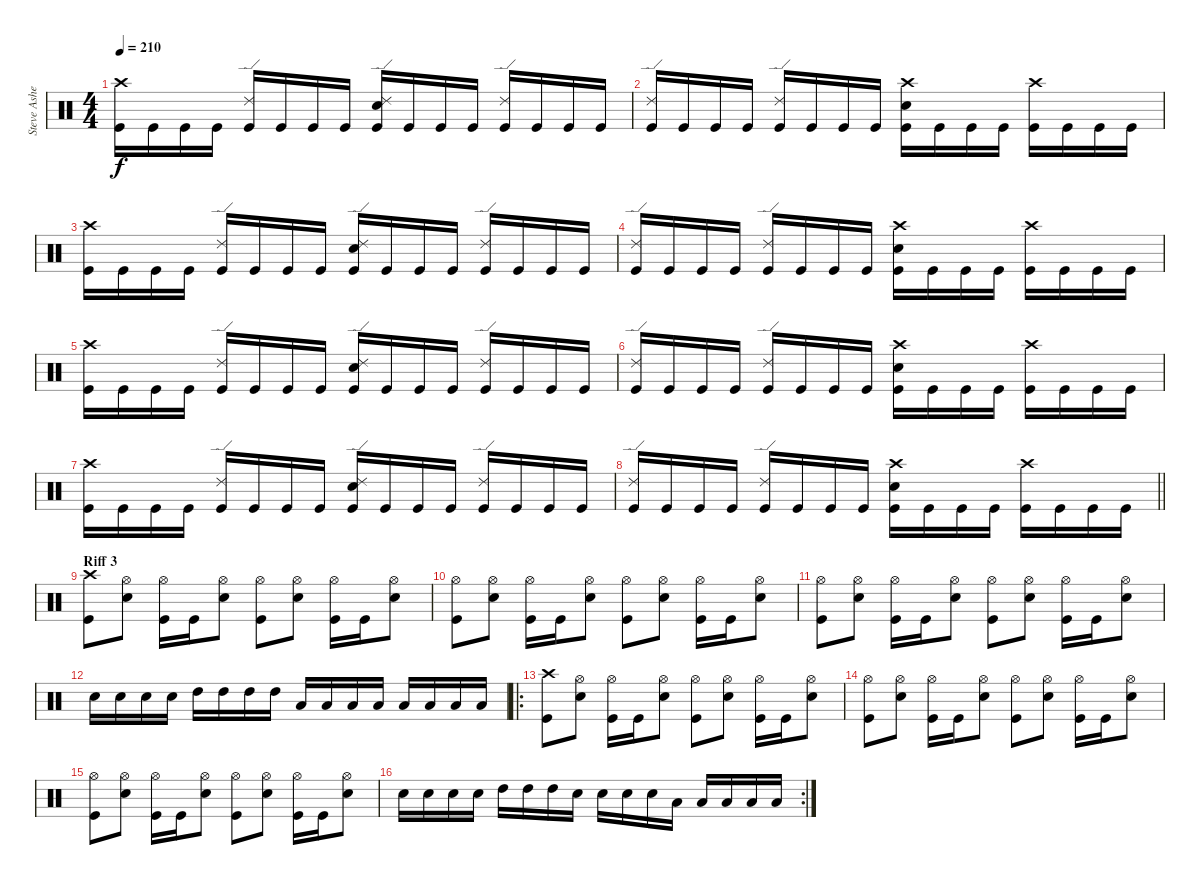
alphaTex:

\track ("Steve Asheim" "Steve Ashe") {instrument percussion}
\staff {score}
\articulation defaults
\ts (4 4)
\tempo 210
\clef neutral
\ks c
("Crash high (hit)" "Kick (hit)").16{dy f} "Kick (hit)".16 "Kick (hit)".16 "Kick (hit)".16 ("Ride (edge) 2" "Kick (hit)").16 "Kick (hit)".16 "Kick (hit)".16 "Kick (hit)".16 ("Ride (edge) 2" "Snare (hit) 2" "Kick (hit)").16 "Kick (hit)".16 "Kick (hit)".16 "Kick (hit)".16 ("Ride (edge) 2" "Kick (hit)").16 "Kick (hit)".16 "Kick (hit)".16 "Kick (hit)".16 |
("Ride (edge) 2" "Kick (hit)").16 "Kick (hit)".16 "Kick (hit)".16 "Kick (hit)".16 ("Ride (edge) 2" "Kick (hit)").16 "Kick (hit)".16 "Kick (hit)".16 "Kick (hit)".16 ("Crash high (hit)" "Snare (hit) 2" "Kick (hit)").16 "Kick (hit)".16 "Kick (hit)".16 "Kick (hit)".16 ("Crash high (hit)" "Kick (hit)").16 "Kick (hit)".16 "Kick (hit)".16 "Kick (hit)".16 |
("Crash high (hit)" "Kick (hit)").16 "Kick (hit)".16 "Kick (hit)".16 "Kick (hit)".16 ("Ride (edge) 2" "Kick (hit)").16 "Kick (hit)".16 "Kick (hit)".16 "Kick (hit)".16 ("Ride (edge) 2" "Snare (hit) 2" "Kick (hit)").16 "Kick (hit)".16 "Kick (hit)".16 "Kick (hit)".16 ("Ride (edge) 2" "Kick (hit)").16 "Kick (hit)".16 "Kick (hit)".16 "Kick (hit)".16 |
("Ride (edge) 2" "Kick (hit)").16 "Kick (hit)".16 "Kick (hit)".16 "Kick (hit)".16 ("Ride (edge) 2" "Kick (hit)").16 "Kick (hit)".16 "Kick (hit)".16 "Kick (hit)".16 ("Crash high (hit)" "Snare (hit) 2" "Kick (hit)").16 "Kick (hit)".16 "Kick (hit)".16 "Kick (hit)".16 ("Crash high (hit)" "Kick (hit)").16 "Kick (hit)".16 "Kick (hit)".16 "Kick (hit)".16 |
("Crash high (hit)" "Kick (hit)").16 "Kick (hit)".16 "Kick (hit)".16 "Kick (hit)".16 ("Ride (edge) 2" "Kick (hit)").16 "Kick (hit)".16 "Kick (hit)".16 "Kick (hit)".16 ("Ride (edge) 2" "Snare (hit) 2" "Kick (hit)").16 "Kick (hit)".16 "Kick (hit)".16 "Kick (hit)".16 ("Ride (edge) 2" "Kick (hit)").16 "Kick (hit)".16 "Kick (hit)".16 "Kick (hit)".16 |
("Ride (edge) 2" "Kick (hit)").16 "Kick (hit)".16 "Kick (hit)".16 "Kick (hit)".16 ("Ride (edge) 2" "Kick (hit)").16 "Kick (hit)".16 "Kick (hit)".16 "Kick (hit)".16 ("Crash high (hit)" "Snare (hit) 2" "Kick (hit)").16 "Kick (hit)".16 "Kick (hit)".16 "Kick (hit)".16 ("Crash high (hit)" "Kick (hit)").16 "Kick (hit)".16 "Kick (hit)".16 "Kick (hit)".16 |
("Crash high (hit)" "Kick (hit)").16 "Kick (hit)".16 "Kick (hit)".16 "Kick (hit)".16 ("Ride (edge) 2" "Kick (hit)").16 "Kick (hit)".16 "Kick (hit)".16 "Kick (hit)".16 ("Ride (edge) 2" "Snare (hit) 2" "Kick (hit)").16 "Kick (hit)".16 "Kick (hit)".16 "Kick (hit)".16 ("Ride (edge) 2" "Kick (hit)").16 "Kick (hit)".16 "Kick (hit)".16 "Kick (hit)".16 |
\barLineRight lightlight
("Ride (edge) 2" "Kick (hit)").16 "Kick (hit)".16 "Kick (hit)".16 "Kick (hit)".16 ("Ride (edge) 2" "Kick (hit)").16 "Kick (hit)".16 "Kick (hit)".16 "Kick (hit)".16 ("Crash high (hit)" "Snare (hit) 2" "Kick (hit)").16 "Kick (hit)".16 "Kick (hit)".16 "Kick (hit)".16 ("Crash high (hit)" "Kick (hit)").16 "Kick (hit)".16 "Kick (hit)".16 "Kick (hit)".16 |
\section ("" "Riff 3")
("Crash high (hit)" "Kick (hit)").8 ("Hi-Hat (open)" "Snare (hit) 2").8 ("Hi-Hat (open)" "Kick (hit)").16 "Kick (hit)".16 ("Hi-Hat (open)" "Snare (hit) 2").8 ("Hi-Hat (open)" "Kick (hit)").8 ("Hi-Hat (open)" "Snare (hit) 2").8 ("Hi-Hat (open)" "Kick (hit)").16 "Kick (hit)".16 ("Hi-Hat (open)" "Snare (hit) 2").8 |
("Hi-Hat (open)" "Kick (hit)").8 ("Hi-Hat (open)" "Snare (hit) 2").8 ("Hi-Hat (open)" "Kick (hit)").16 "Kick (hit)".16 ("Hi-Hat (open)" "Snare (hit) 2").8 ("Hi-Hat (open)" "Kick (hit)").8 ("Hi-Hat (open)" "Snare (hit) 2").8 ("Hi-Hat (open)" "Kick (hit)").16 "Kick (hit)".16 ("Hi-Hat (open)" "Snare (hit) 2").8 |
("Hi-Hat (open)" "Kick (hit)").8 ("Hi-Hat (open)" "Snare (hit) 2").8 ("Hi-Hat (open)" "Kick (hit)").16 "Kick (hit)".16 ("Hi-Hat (open)" "Snare (hit) 2").8 ("Hi-Hat (open)" "Kick (hit)").8 ("Hi-Hat (open)" "Snare (hit) 2").8 ("Hi-Hat (open)" "Kick (hit)").16 "Kick (hit)".16 ("Hi-Hat (open)" "Snare (hit) 2").8 |
"Snare (hit) 2".16 "Snare (hit) 2".16 "Snare (hit) 2".16 "Snare (hit) 2".16 "High Tom (hit)".16 "High Tom (hit)".16 "High Tom (hit)".16 "High Tom (hit)".16 "Low Tom (hit)".16 "Low Tom (hit)".16 "Low Tom (hit)".16 "Low Tom (hit)".16 "Low Floor Tom (hit)".16 "Low Floor Tom (hit)".16 "Low Floor Tom (hit)".16 "Low Floor Tom (hit)".16 |
\ro
("Crash high (hit)" "Kick (hit)").8 ("Hi-Hat (open)" "Snare (hit) 2").8 ("Hi-Hat (open)" "Kick (hit)").16 "Kick (hit)".16 ("Hi-Hat (open)" "Snare (hit) 2").8 ("Hi-Hat (open)" "Kick (hit)").8 ("Hi-Hat (open)" "Snare (hit) 2").8 ("Hi-Hat (open)" "Kick (hit)").16 "Kick (hit)".16 ("Hi-Hat (open)" "Snare (hit) 2").8 |
("Hi-Hat (open)" "Kick (hit)").8 ("Hi-Hat (open)" "Snare (hit) 2").8 ("Hi-Hat (open)" "Kick (hit)").16 "Kick (hit)".16 ("Hi-Hat (open)" "Snare (hit) 2").8 ("Hi-Hat (open)" "Kick (hit)").8 ("Hi-Hat (open)" "Snare (hit) 2").8 ("Hi-Hat (open)" "Kick (hit)").16 "Kick (hit)".16 ("Hi-Hat (open)" "Snare (hit) 2").8 |
("Hi-Hat (open)" "Kick (hit)").8 ("Hi-Hat (open)" "Snare (hit) 2").8 ("Hi-Hat (open)" "Kick (hit)").16 "Kick (hit)".16 ("Hi-Hat (open)" "Snare (hit) 2").8 ("Hi-Hat (open)" "Kick (hit)").8 ("Hi-Hat (open)" "Snare (hit) 2").8 ("Hi-Hat (open)" "Kick (hit)").16 "Kick (hit)".16 ("Hi-Hat (open)" "Snare (hit) 2").8 |
\rc 2 "Snare (hit) 2".16 "Snare (hit) 2".16 "Snare (hit) 2".16 "Snare (hit) 2".16 "High Tom (hit)".16 "High Tom (hit)".16 "High Tom (hit)".16 "Snare (hit) 2".16 "Snare (hit) 2".16 "Snare (hit) 2".16 "Snare (hit) 2".16 "Low Tom (hit)".16 "Low Tom (hit)".16 "Low Tom (hit)".16 "Low Floor Tom (hit)".16 "Low Floor Tom (hit)".16
